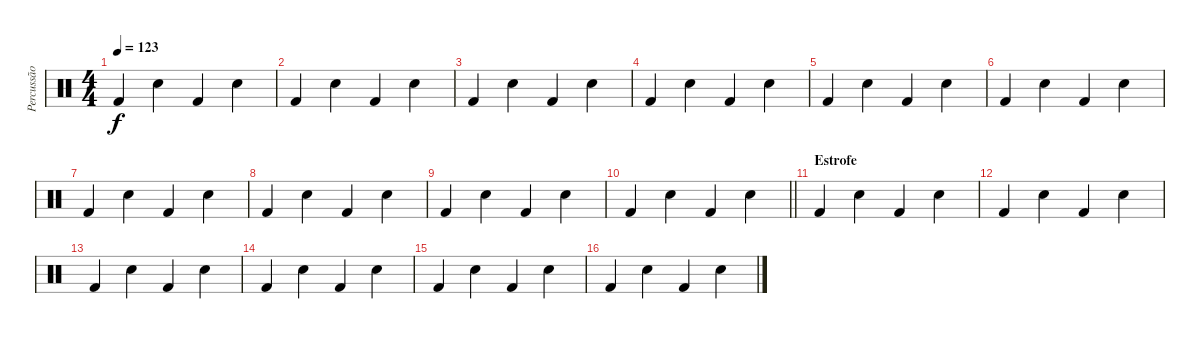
\track ("Percussão" "Percussão") {instrument percussion}
\staff {score}
\articulation defaults
\ts (4 4)
\tempo 123
\clef neutral
\ks c "Kick (hit) 2".4{dy f} "Snare (hit) 2".4 "Kick (hit) 2".4 "Snare (hit) 2".4
|
"Kick (hit) 2".4 "Snare (hit) 2".4 "Kick (hit) 2".4 "Snare (hit) 2".4 |
"Kick (hit) 2".4 "Snare (hit) 2".4 "Kick (hit) 2".4 "Snare (hit) 2".4 |
"Kick (hit) 2".4 "Snare (hit) 2".4 "Kick (hit) 2".4 "Snare (hit) 2".4 |
"Kick (hit) 2".4 "Snare (hit) 2".4 "Kick (hit) 2".4 "Snare (hit) 2".4 |
"Kick (hit) 2".4 "Snare (hit) 2".4 "Kick (hit) 2".4 "Snare (hit) 2".4 |
"Kick (hit) 2".4 "Snare (hit) 2".4 "Kick (hit) 2".4 "Snare (hit) 2".4 |
"Kick (hit) 2".4 "Snare (hit) 2".4 "Kick (hit) 2".4 "Snare (hit) 2".4 |
"Kick (hit) 2".4 "Snare (hit) 2".4 "Kick (hit) 2".4 "Snare (hit) 2".4 |
\barLineRight lightlight "Kick (hit) 2".4 "Snare (hit) 2".4 "Kick (hit) 2".4 "Snare (hit) 2".4
|
\section ("" "Estrofe")
"Kick (hit) 2".4 "Snare (hit) 2".4 "Kick (hit) 2".4 "Snare (hit) 2".4 |
"Kick (hit) 2".4 "Snare (hit) 2".4 "Kick (hit) 2".4 "Snare (hit) 2".4 |
"Kick (hit) 2".4 "Snare (hit) 2".4 "Kick (hit) 2".4 "Snare (hit) 2".4 |
"Kick (hit) 2".4 "Snare (hit) 2".4 "Kick (hit) 2".4 "Snare (hit) 2".4 |
"Kick (hit) 2".4 "Snare (hit) 2".4 "Kick (hit) 2".4 "Snare (hit) 2".4 |
"Kick (hit) 2".4 "Snare (hit) 2".4 "Kick (hit) 2".4 "Snare (hit) 2".4
